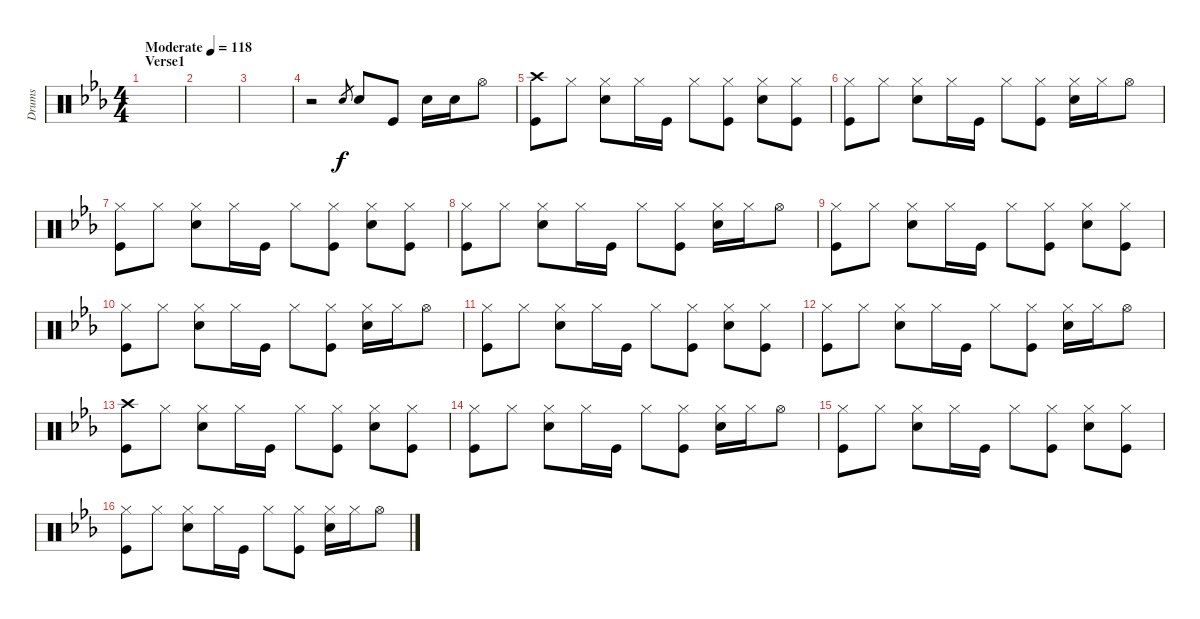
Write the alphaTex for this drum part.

\track ("Drums" "Drums") {instrument percussion}
\staff {score}
\articulation defaults
\ts (4 4)
\section ("" "Verse1")
\tempo (118 "Moderate")
\clef neutral
\ks cminor
|
|
|
r.2 "Snare (hit) 2".8{gr} "Snare (hit) 2".8 "Kick (hit)".8 "Snare (hit) 2".16 "Snare (hit) 2".16 "Hi-Hat (open)".8 |
("Crash high (hit)" "Kick (hit)").8 "Hi-Hat (closed)".8 ("Hi-Hat (closed)" "Snare (hit) 2").8 "Hi-Hat (closed)".16 "Kick (hit)".16 "Hi-Hat (closed)".8 ("Hi-Hat (closed)" "Kick (hit)").8 ("Hi-Hat (closed)" "Snare (hit) 2").8 ("Hi-Hat (closed)" "Kick (hit)").8 |
("Hi-Hat (closed)" "Kick (hit)").8 "Hi-Hat (closed)".8 ("Hi-Hat (closed)" "Snare (hit) 2").8 "Hi-Hat (closed)".16 "Kick (hit)".16 "Hi-Hat (closed)".8 ("Hi-Hat (closed)" "Kick (hit)").8 ("Hi-Hat (closed)" "Snare (hit) 2").16 "Hi-Hat (closed)".16 "Hi-Hat (open)".8 |
("Hi-Hat (closed)" "Kick (hit)").8 "Hi-Hat (closed)".8 ("Hi-Hat (closed)" "Snare (hit) 2").8 "Hi-Hat (closed)".16 "Kick (hit)".16 "Hi-Hat (closed)".8 ("Hi-Hat (closed)" "Kick (hit)").8 ("Hi-Hat (closed)" "Snare (hit) 2").8 ("Hi-Hat (closed)" "Kick (hit)").8 |
("Hi-Hat (closed)" "Kick (hit)").8 "Hi-Hat (closed)".8 ("Hi-Hat (closed)" "Snare (hit) 2").8 "Hi-Hat (closed)".16 "Kick (hit)".16 "Hi-Hat (closed)".8 ("Hi-Hat (closed)" "Kick (hit)").8 ("Hi-Hat (closed)" "Snare (hit) 2").16 "Hi-Hat (closed)".16 "Hi-Hat (open)".8 |
("Hi-Hat (closed)" "Kick (hit)").8 "Hi-Hat (closed)".8 ("Hi-Hat (closed)" "Snare (hit) 2").8 "Hi-Hat (closed)".16 "Kick (hit)".16 "Hi-Hat (closed)".8 ("Hi-Hat (closed)" "Kick (hit)").8 ("Hi-Hat (closed)" "Snare (hit) 2").8 ("Hi-Hat (closed)" "Kick (hit)").8 |
("Hi-Hat (closed)" "Kick (hit)").8 "Hi-Hat (closed)".8 ("Hi-Hat (closed)" "Snare (hit) 2").8 "Hi-Hat (closed)".16 "Kick (hit)".16 "Hi-Hat (closed)".8 ("Hi-Hat (closed)" "Kick (hit)").8 ("Hi-Hat (closed)" "Snare (hit) 2").16 "Hi-Hat (closed)".16 "Hi-Hat (open)".8 |
("Hi-Hat (closed)" "Kick (hit)").8 "Hi-Hat (closed)".8 ("Hi-Hat (closed)" "Snare (hit) 2").8 "Hi-Hat (closed)".16 "Kick (hit)".16 "Hi-Hat (closed)".8 ("Hi-Hat (closed)" "Kick (hit)").8 ("Hi-Hat (closed)" "Snare (hit) 2").8 ("Hi-Hat (closed)" "Kick (hit)").8 |
("Hi-Hat (closed)" "Kick (hit)").8 "Hi-Hat (closed)".8 ("Hi-Hat (closed)" "Snare (hit) 2").8 "Hi-Hat (closed)".16 "Kick (hit)".16 "Hi-Hat (closed)".8 ("Hi-Hat (closed)" "Kick (hit)").8 ("Hi-Hat (closed)" "Snare (hit) 2").16 "Hi-Hat (closed)".16 "Hi-Hat (open)".8 |
("Crash high (hit)" "Kick (hit)").8 "Hi-Hat (closed)".8 ("Hi-Hat (closed)" "Snare (hit) 2").8 "Hi-Hat (closed)".16 "Kick (hit)".16 "Hi-Hat (closed)".8 ("Hi-Hat (closed)" "Kick (hit)").8 ("Hi-Hat (closed)" "Snare (hit) 2").8 ("Hi-Hat (closed)" "Kick (hit)").8 |
("Hi-Hat (closed)" "Kick (hit)").8 "Hi-Hat (closed)".8 ("Hi-Hat (closed)" "Snare (hit) 2").8 "Hi-Hat (closed)".16 "Kick (hit)".16 "Hi-Hat (closed)".8 ("Hi-Hat (closed)" "Kick (hit)").8 ("Hi-Hat (closed)" "Snare (hit) 2").16 "Hi-Hat (closed)".16 "Hi-Hat (open)".8 |
("Hi-Hat (closed)" "Kick (hit)").8 "Hi-Hat (closed)".8 ("Hi-Hat (closed)" "Snare (hit) 2").8 "Hi-Hat (closed)".16 "Kick (hit)".16 "Hi-Hat (closed)".8 ("Hi-Hat (closed)" "Kick (hit)").8 ("Hi-Hat (closed)" "Snare (hit) 2").8 ("Hi-Hat (closed)" "Kick (hit)").8 |
("Hi-Hat (closed)" "Kick (hit)").8 "Hi-Hat (closed)".8 ("Hi-Hat (closed)" "Snare (hit) 2").8 "Hi-Hat (closed)".16 "Kick (hit)".16 "Hi-Hat (closed)".8 ("Hi-Hat (closed)" "Kick (hit)").8 ("Hi-Hat (closed)" "Snare (hit) 2").16 "Hi-Hat (closed)".16 "Hi-Hat (open)".8
